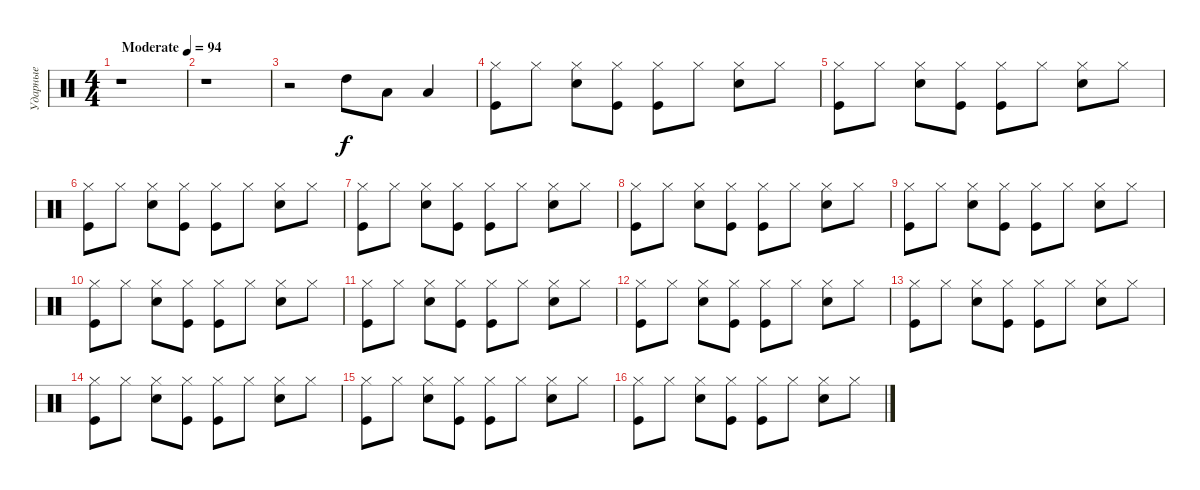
\track ("Ударные" "Ударные") {instrument percussion}
\staff {score}
\articulation defaults
\ts (4 4)
\tempo (94 "Moderate")
\clef neutral
\ks c
r.1{dy f} |
r.1 |
r.2 "High Tom (hit)".8 "Low Tom (hit)".8 "Low Floor Tom (hit)".4 |
("Hi-Hat (closed)" "Kick (hit)").8 "Hi-Hat (closed)".8 ("Hi-Hat (closed)" "Snare (hit) 2").8 ("Kick (hit)" "Hi-Hat (closed)").8 ("Hi-Hat (closed)" "Kick (hit)").8 "Hi-Hat (closed)".8 ("Hi-Hat (closed)" "Snare (hit) 2").8 "Hi-Hat (closed)".8 |
("Hi-Hat (closed)" "Kick (hit)").8 "Hi-Hat (closed)".8 ("Hi-Hat (closed)" "Snare (hit) 2").8 ("Kick (hit)" "Hi-Hat (closed)").8 ("Hi-Hat (closed)" "Kick (hit)").8 "Hi-Hat (closed)".8 ("Hi-Hat (closed)" "Snare (hit) 2").8 "Hi-Hat (closed)".8 |
("Hi-Hat (closed)" "Kick (hit)").8 "Hi-Hat (closed)".8 ("Hi-Hat (closed)" "Snare (hit) 2").8 ("Kick (hit)" "Hi-Hat (closed)").8 ("Hi-Hat (closed)" "Kick (hit)").8 "Hi-Hat (closed)".8 ("Hi-Hat (closed)" "Snare (hit) 2").8 "Hi-Hat (closed)".8 |
("Hi-Hat (closed)" "Kick (hit)").8 "Hi-Hat (closed)".8 ("Hi-Hat (closed)" "Snare (hit) 2").8 ("Kick (hit)" "Hi-Hat (closed)").8 ("Hi-Hat (closed)" "Kick (hit)").8 "Hi-Hat (closed)".8 ("Hi-Hat (closed)" "Snare (hit) 2").8 "Hi-Hat (closed)".8 |
("Hi-Hat (closed)" "Kick (hit)").8 "Hi-Hat (closed)".8 ("Hi-Hat (closed)" "Snare (hit) 2").8 ("Kick (hit)" "Hi-Hat (closed)").8 ("Hi-Hat (closed)" "Kick (hit)").8 "Hi-Hat (closed)".8 ("Hi-Hat (closed)" "Snare (hit) 2").8 "Hi-Hat (closed)".8 |
("Hi-Hat (closed)" "Kick (hit)").8 "Hi-Hat (closed)".8 ("Hi-Hat (closed)" "Snare (hit) 2").8 ("Kick (hit)" "Hi-Hat (closed)").8 ("Hi-Hat (closed)" "Kick (hit)").8 "Hi-Hat (closed)".8 ("Hi-Hat (closed)" "Snare (hit) 2").8 "Hi-Hat (closed)".8 |
("Hi-Hat (closed)" "Kick (hit)").8 "Hi-Hat (closed)".8 ("Hi-Hat (closed)" "Snare (hit) 2").8 ("Kick (hit)" "Hi-Hat (closed)").8 ("Hi-Hat (closed)" "Kick (hit)").8 "Hi-Hat (closed)".8 ("Hi-Hat (closed)" "Snare (hit) 2").8 "Hi-Hat (closed)".8 |
("Hi-Hat (closed)" "Kick (hit)").8 "Hi-Hat (closed)".8 ("Hi-Hat (closed)" "Snare (hit) 2").8 ("Kick (hit)" "Hi-Hat (closed)").8 ("Hi-Hat (closed)" "Kick (hit)").8 "Hi-Hat (closed)".8 ("Hi-Hat (closed)" "Snare (hit) 2").8 "Hi-Hat (closed)".8 |
("Hi-Hat (closed)" "Kick (hit)").8 "Hi-Hat (closed)".8 ("Hi-Hat (closed)" "Snare (hit) 2").8 ("Kick (hit)" "Hi-Hat (closed)").8 ("Hi-Hat (closed)" "Kick (hit)").8 "Hi-Hat (closed)".8 ("Hi-Hat (closed)" "Snare (hit) 2").8 "Hi-Hat (closed)".8 |
("Hi-Hat (closed)" "Kick (hit)").8 "Hi-Hat (closed)".8 ("Hi-Hat (closed)" "Snare (hit) 2").8 ("Kick (hit)" "Hi-Hat (closed)").8 ("Hi-Hat (closed)" "Kick (hit)").8 "Hi-Hat (closed)".8 ("Hi-Hat (closed)" "Snare (hit) 2").8 "Hi-Hat (closed)".8 |
("Hi-Hat (closed)" "Kick (hit)").8 "Hi-Hat (closed)".8 ("Hi-Hat (closed)" "Snare (hit) 2").8 ("Kick (hit)" "Hi-Hat (closed)").8 ("Hi-Hat (closed)" "Kick (hit)").8 "Hi-Hat (closed)".8 ("Hi-Hat (closed)" "Snare (hit) 2").8 "Hi-Hat (closed)".8 |
("Hi-Hat (closed)" "Kick (hit)").8 "Hi-Hat (closed)".8 ("Hi-Hat (closed)" "Snare (hit) 2").8 ("Kick (hit)" "Hi-Hat (closed)").8 ("Hi-Hat (closed)" "Kick (hit)").8 "Hi-Hat (closed)".8 ("Hi-Hat (closed)" "Snare (hit) 2").8 "Hi-Hat (closed)".8 |
("Hi-Hat (closed)" "Kick (hit)").8 "Hi-Hat (closed)".8 ("Hi-Hat (closed)" "Snare (hit) 2").8 ("Kick (hit)" "Hi-Hat (closed)").8 ("Hi-Hat (closed)" "Kick (hit)").8 "Hi-Hat (closed)".8 ("Hi-Hat (closed)" "Snare (hit) 2").8 "Hi-Hat (closed)".8
